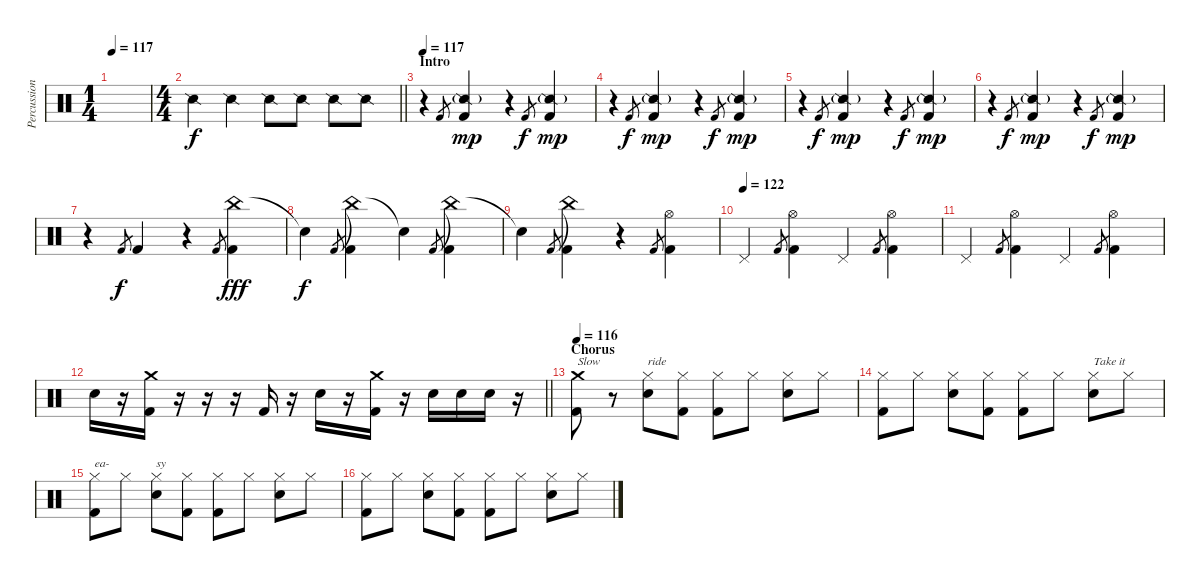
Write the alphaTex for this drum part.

\track ("Percussion" "Percussion") {instrument percussion}
\staff {score}
\articulation defaults
\ts (1 4)
\tempo 117
\clef neutral
\ks c
|
\ts (4 4)
\barLineRight lightlight "Snare (side stick) 2".4 "Snare (side stick) 2".4 "Snare (side stick) 2".8 "Snare (side stick) 2".8 "Snare (side stick) 2".8 "Snare (side stick) 2".8
|
\section ("" "Intro")
\tempo 117
r.4 "Kick (hit) 2".8{gr} ("Snare (side stick) 2"{g} "Kick (hit) 2").4{dy mp} r.4 "Kick (hit) 2".8{gr dy f} ("Snare (side stick) 2"{g} "Kick (hit) 2").4{dy mp} |
r.4 "Kick (hit) 2".8{gr dy f} ("Snare (side stick) 2"{g} "Kick (hit) 2").4{dy mp} r.4 "Kick (hit) 2".8{gr dy f} ("Snare (side stick) 2"{g} "Kick (hit) 2").4{dy mp} |
r.4 "Kick (hit) 2".8{gr dy f} ("Snare (side stick) 2"{g} "Kick (hit) 2").4{dy mp} r.4 "Kick (hit) 2".8{gr dy f} ("Snare (side stick) 2"{g} "Kick (hit) 2").4{dy mp} |
r.4 "Kick (hit) 2".8{gr dy f} ("Snare (side stick) 2"{g} "Kick (hit) 2").4{dy mp} r.4 "Kick (hit) 2".8{gr dy f} ("Snare (side stick) 2"{g} "Kick (hit) 2").4{dy mp} |
r.4 "Kick (hit) 2".8{gr dy f} "Kick (hit) 2".4 r.4 "Kick (hit) 2".8{gr} ("China (hit)" "Kick (hit) 2").4{dy fff} |
"Snare (hit)"{t}.4{dy f} "Kick (hit) 2".8{gr} ("China (hit)"{t} "Kick (hit) 2").4 "Snare (hit)"{t}.4 "Kick (hit) 2".8{gr} ("China (hit)"{t} "Kick (hit) 2").4 |
"Snare (hit)"{t}.4 "Kick (hit) 2".8{gr} ("China (hit)"{t} "Kick (hit) 2").4 r.4 "Kick (hit) 2".8{gr} ("Hi-Hat (open)" "Kick (hit) 2").4{beam Down} |
\tempo (122)
"Pedal Hi-Hat (hit)".4 "Kick (hit) 2".8{gr} ("Hi-Hat (open)" "Kick (hit) 2").4 "Pedal Hi-Hat (hit)".4 "Kick (hit) 2".8{gr} ("Hi-Hat (open)" "Kick (hit) 2").4 |
"Pedal Hi-Hat (hit)".4 "Kick (hit) 2".8{gr} ("Hi-Hat (open)" "Kick (hit) 2").4 "Pedal Hi-Hat (hit)".4 "Kick (hit) 2".8{gr} ("Hi-Hat (open)" "Kick (hit) 2").4 |
\barLineRight lightlight "Snare (hit) 2".16
r.16 ("Crash medium (hit)" "Kick (hit) 2").16 r.16 r.16 r.16 "Kick (hit) 2".16 r.16 "Snare (hit) 2".16 r.16 ("Crash medium (hit)" "Kick (hit) 2").16 r.16 "Snare (hit) 2".16 "Snare (hit) 2".16 "Snare (hit) 2".16 r.16 |
\section ("" "Chorus")
\tempo 116
("Crash medium (hit)" "Kick (hit) 2").8{txt "Slow"} r.8 ("Hi-Hat (closed)" "Snare (hit) 2").8{txt "ride"} ("Hi-Hat (closed)" "Kick (hit) 2").8 ("Hi-Hat (closed)" "Kick (hit) 2").8 "Hi-Hat (closed)".8 ("Hi-Hat (closed)" "Snare (hit) 2").8 "Hi-Hat (closed)".8 |
("Hi-Hat (closed)" "Kick (hit) 2").8 "Hi-Hat (closed)".8 ("Hi-Hat (closed)" "Snare (hit) 2").8 ("Hi-Hat (closed)" "Kick (hit) 2").8 ("Hi-Hat (closed)" "Kick (hit) 2").8 "Hi-Hat (closed)".8 ("Hi-Hat (closed)" "Snare (hit) 2").8{txt "Take it"} "Hi-Hat (closed)".8 |
("Hi-Hat (closed)" "Kick (hit) 2").8{txt "ea-"} "Hi-Hat (closed)".8 ("Hi-Hat (closed)" "Snare (hit) 2").8{txt "sy"} ("Hi-Hat (closed)" "Kick (hit) 2").8 ("Hi-Hat (closed)" "Kick (hit) 2").8 "Hi-Hat (closed)".8 ("Hi-Hat (closed)" "Snare (hit) 2").8 "Hi-Hat (closed)".8 |
("Hi-Hat (closed)" "Kick (hit) 2").8 "Hi-Hat (closed)".8 ("Hi-Hat (closed)" "Snare (hit) 2").8 ("Hi-Hat (closed)" "Kick (hit) 2").8 ("Hi-Hat (closed)" "Kick (hit) 2").8 "Hi-Hat (closed)".8 ("Hi-Hat (closed)" "Snare (hit) 2").8 "Hi-Hat (closed)".8
